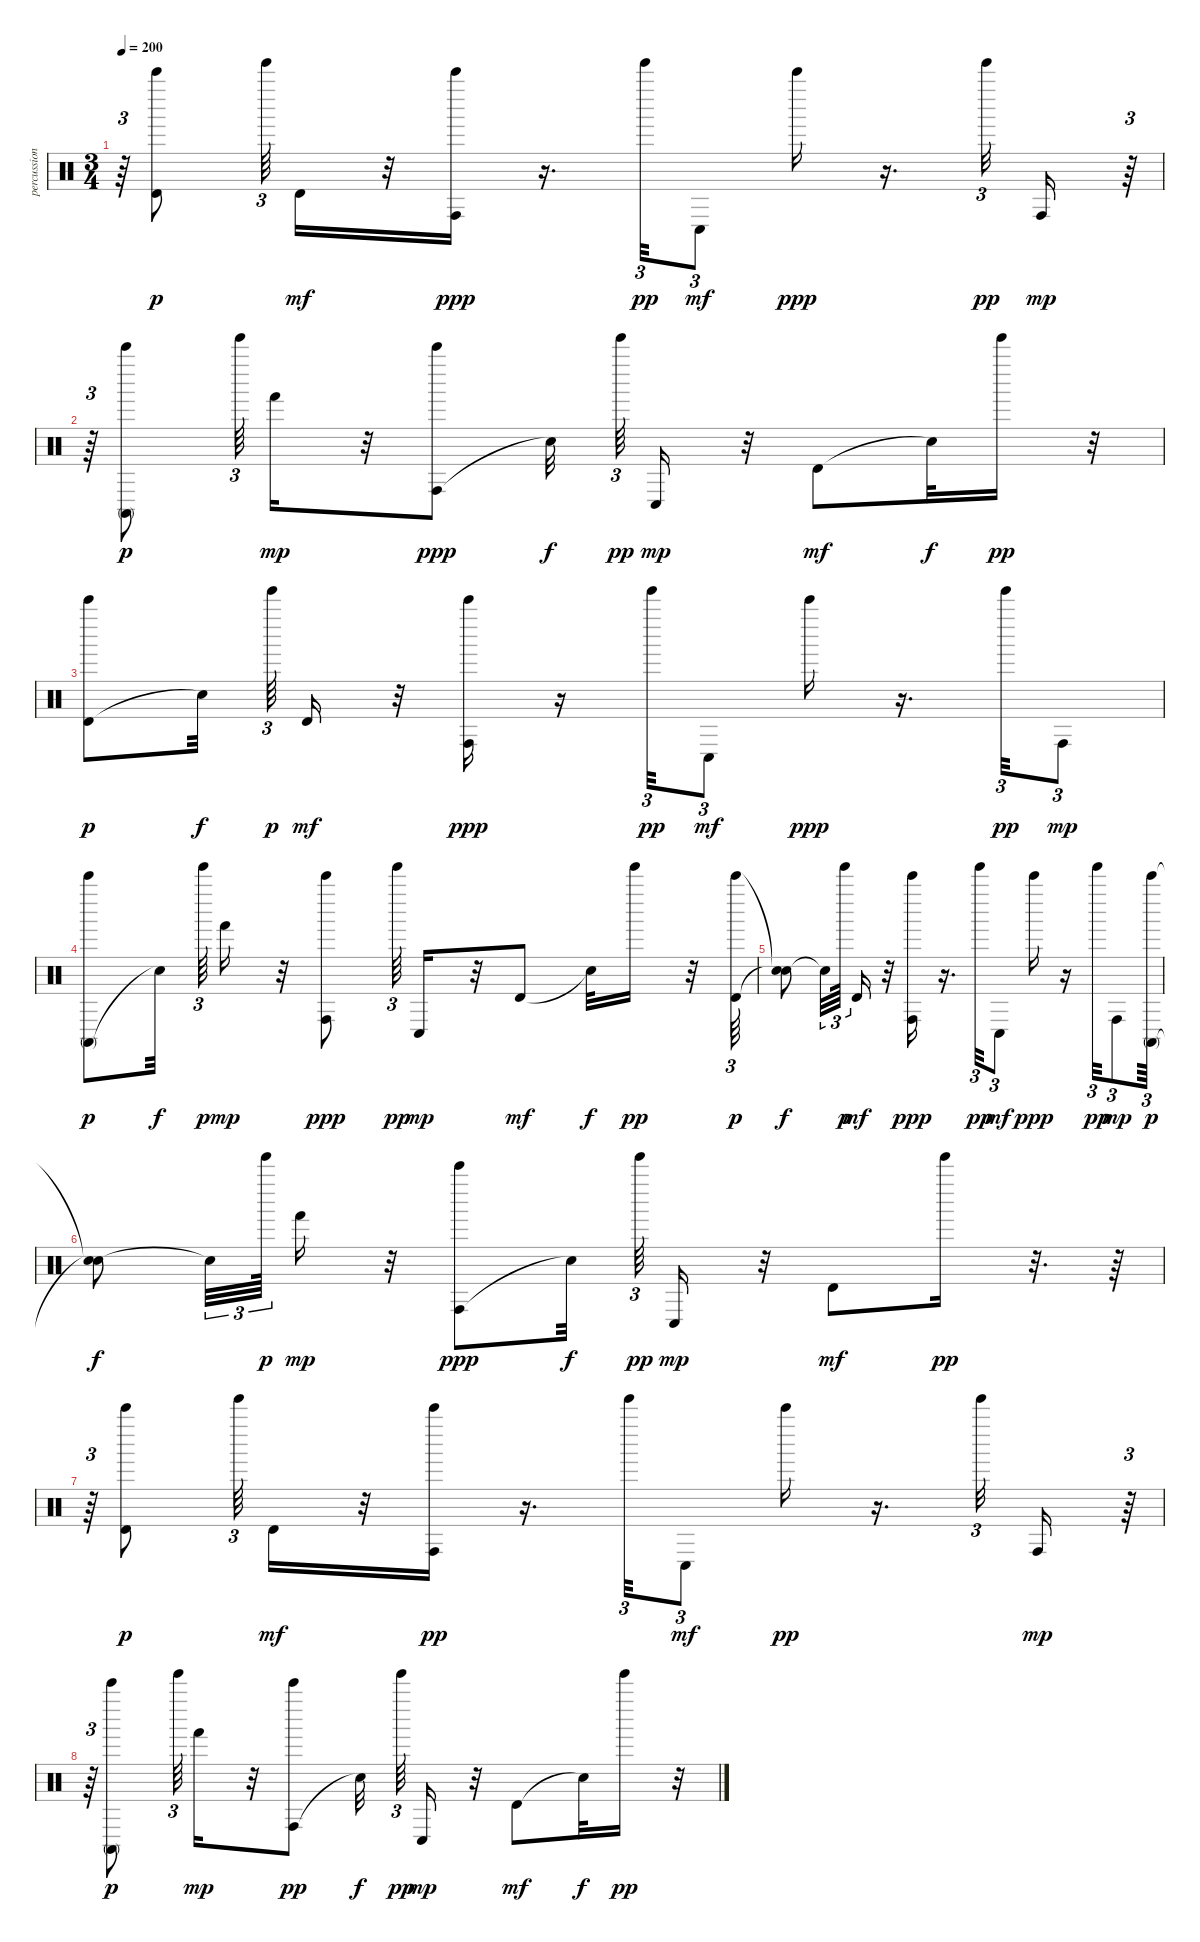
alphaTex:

\track ("percussion" "percussion") {instrument percussion}
\staff {score}
\articulation defaults
\ts (3 4)
\tempo 200
\clef neutral
\ks c
r.64{tu (3 2) dy pp} ("Timbale high (hit)" "Bell Tree (hit)").8{dy p} "Tinkle Bell (hit)".64{tu (3 2)} "Timbale high (hit)".16{dy mf} r.32 ("Conga high (hit)" "Bell Tree (hit)").16{dy ppp} r.16{d} "Tinkle Bell (hit)".32{tu (3 2) dy pp} "Conga low (hit)".8{tu (3 2) dy mf} "Bell Tree (hit)".16{dy ppp} r.16{d} "Tinkle Bell (hit)".32{tu (3 2) dy pp} "Conga high (hit)".16{dy mp} r.64{tu (3 2)} |
r.64{tu (3 2)} ("Conga high (mute)" "Bell Tree (hit)").8{dy p} "Tinkle Bell (hit)".64{tu (3 2)} "Hand (hit)".16{dy mp} r.32 ("Conga high (hit)" "Bell Tree (hit)").8{dy ppp} "Snare (hit)"{t}.32{dy f} "Tinkle Bell (hit)".64{tu (3 2) dy pp} "Conga low (hit)".16{dy mp} r.32 "Timbale high (hit)".8{dy mf} "Snare (hit)"{t}.32{dy f} "Tinkle Bell (hit)".16{dy pp} r.32 |
("Timbale high (hit)" "Bell Tree (hit)").8{dy p} "Snare (hit)"{t}.32{dy f} "Tinkle Bell (hit)".64{tu (3 2) dy p} "Timbale high (hit)".16{dy mf} r.32 ("Conga high (hit)" "Bell Tree (hit)").16{dy ppp} r.16 "Tinkle Bell (hit)".32{tu (3 2) dy pp} "Conga low (hit)".8{tu (3 2) dy mf} "Bell Tree (hit)".16{dy ppp} r.16{d} "Tinkle Bell (hit)".32{tu (3 2) dy pp} "Conga high (hit)".8{tu (3 2) dy mp} |
("Conga high (mute)" "Bell Tree (hit)").8{dy p} "Snare (hit)"{t}.32{dy f} "Tinkle Bell (hit)".64{tu (3 2) dy p} "Hand (hit)".16{dy mp} r.32 ("Conga high (hit)" "Bell Tree (hit)").8{dy ppp} "Tinkle Bell (hit)".64{tu (3 2) dy pp} "Conga low (hit)".16{dy mp} r.32 "Timbale high (hit)".8{dy mf} "Snare (hit)"{t}.32{dy f} "Tinkle Bell (hit)".16{dy pp} r.32 ("Timbale high (hit)" "Bell Tree (hit)").64{tu (3 2) dy p} |
("Snare (hit)"{t} "Snare (hit)"{t}).8{dy f} "Snare (hit)"{t}.32{tu (3 2)} "Tinkle Bell (hit)".64{tu (3 2) dy p} "Timbale high (hit)".16{dy mf} r.32 ("Conga high (hit)" "Bell Tree (hit)").16{dy ppp} r.16{d} "Tinkle Bell (hit)".32{tu (3 2) dy pp} "Conga low (hit)".8{tu (3 2) dy mf} "Bell Tree (hit)".16{dy ppp} r.16 "Tinkle Bell (hit)".32{tu (3 2) dy pp} "Conga high (hit)".8{tu (3 2) dy mp} ("Conga high (mute)" "Bell Tree (hit)").64{tu (3 2) dy p} |
("Snare (hit)"{t} "Snare (hit)"{t}).8{dy f} "Snare (hit)"{t}.32{tu (3 2)} "Tinkle Bell (hit)".64{tu (3 2) dy p} "Hand (hit)".16{dy mp} r.32 ("Conga high (hit)" "Bell Tree (hit)").8{dy ppp} "Snare (hit)"{t}.32{dy f} "Tinkle Bell (hit)".64{tu (3 2) dy pp} "Conga low (hit)".16{dy mp} r.32 "Timbale high (hit)".8{dy mf} "Tinkle Bell (hit)".16{dy pp} r.32{d} r.64 |
r.64{tu (3 2)} ("Timbale high (hit)" "Bell Tree (hit)").8{dy p} "Tinkle Bell (hit)".64{tu (3 2)} "Timbale high (hit)".16{dy mf} r.32 ("Conga high (hit)" "Bell Tree (hit)").16{dy pp} r.16{d} "Tinkle Bell (hit)".32{tu (3 2)} "Conga low (hit)".8{tu (3 2) dy mf} "Bell Tree (hit)".16{dy pp} r.16{d} "Tinkle Bell (hit)".32{tu (3 2)} "Conga high (hit)".16{dy mp} r.64{tu (3 2)} |
r.64{tu (3 2)} ("Conga high (mute)" "Bell Tree (hit)").8{dy p} "Tinkle Bell (hit)".64{tu (3 2)} "Hand (hit)".16{dy mp} r.32 ("Conga high (hit)" "Bell Tree (hit)").8{dy pp} "Snare (hit)"{t}.32{dy f} "Tinkle Bell (hit)".64{tu (3 2) dy pp} "Conga low (hit)".16{dy mp} r.32 "Timbale high (hit)".8{dy mf} "Snare (hit)"{t}.32{dy f} "Tinkle Bell (hit)".16{dy pp} r.32
